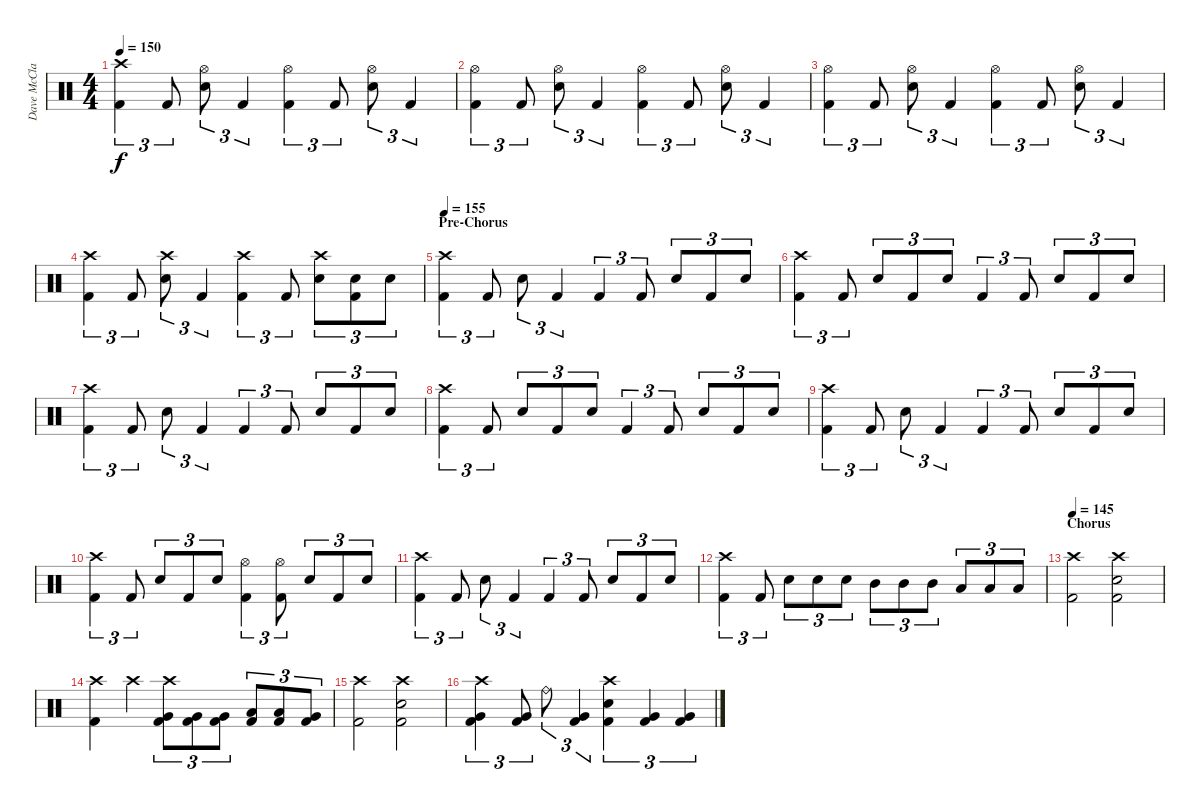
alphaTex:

\track ("Dave McClain" "Dave McCla") {instrument percussion}
\staff {score}
\articulation defaults
\ts (4 4)
\tempo 150
\clef neutral
\ks c
("Crash high (hit)" "Kick (hit) 2").4{tu (3 2) dy f} "Kick (hit) 2".8{tu (3 2)} ("Hi-Hat (open)" "Electric Snare (hit)").8{tu (3 2)} "Kick (hit) 2".4{tu (3 2)} ("Hi-Hat (open)" "Kick (hit) 2").4{tu (3 2)} "Kick (hit) 2".8{tu (3 2)} ("Hi-Hat (open)" "Electric Snare (hit)").8{tu (3 2)} "Kick (hit) 2".4{tu (3 2)} |
("Hi-Hat (open)" "Kick (hit) 2").4{tu (3 2)} "Kick (hit) 2".8{tu (3 2)} ("Hi-Hat (open)" "Electric Snare (hit)").8{tu (3 2)} "Kick (hit) 2".4{tu (3 2)} ("Hi-Hat (open)" "Kick (hit) 2").4{tu (3 2)} "Kick (hit) 2".8{tu (3 2)} ("Hi-Hat (open)" "Electric Snare (hit)").8{tu (3 2)} "Kick (hit) 2".4{tu (3 2)} |
("Hi-Hat (open)" "Kick (hit) 2").4{tu (3 2)} "Kick (hit) 2".8{tu (3 2)} ("Hi-Hat (open)" "Electric Snare (hit)").8{tu (3 2)} "Kick (hit) 2".4{tu (3 2)} ("Hi-Hat (open)" "Kick (hit) 2").4{tu (3 2)} "Kick (hit) 2".8{tu (3 2)} ("Hi-Hat (open)" "Electric Snare (hit)").8{tu (3 2)} "Kick (hit) 2".4{tu (3 2)} |
("Crash high (hit)" "Kick (hit) 2").4{tu (3 2)} "Kick (hit) 2".8{tu (3 2)} ("Crash high (hit)" "Electric Snare (hit)").8{tu (3 2)} "Kick (hit) 2".4{tu (3 2)} ("Crash high (hit)" "Kick (hit) 2").4{tu (3 2)} "Kick (hit) 2".8{tu (3 2)} ("Crash high (hit)" "Electric Snare (hit)").8{tu (3 2)} ("Electric Snare (hit)" "Kick (hit) 2").8{tu (3 2)} "Electric Snare (hit)".8{tu (3 2)} |
\section ("" "Pre-Chorus")
\tempo 155
("Crash high (hit)" "Kick (hit) 2").4{tu (3 2)} "Kick (hit) 2".8{tu (3 2)} "Electric Snare (hit)".8{tu (3 2)} "Kick (hit) 2".4{tu (3 2)} "Kick (hit) 2".4{tu (3 2)} "Kick (hit) 2".8{tu (3 2)} "Electric Snare (hit)".8{tu (3 2)} "Kick (hit) 2".8{tu (3 2)} "Electric Snare (hit)".8{tu (3 2)} |
("Crash high (hit)" "Kick (hit) 2").4{tu (3 2)} "Kick (hit) 2".8{tu (3 2)} "Electric Snare (hit)".8{tu (3 2)} "Kick (hit) 2".8{tu (3 2)} "Electric Snare (hit)".8{tu (3 2)} "Kick (hit) 2".4{tu (3 2)} "Kick (hit) 2".8{tu (3 2)} "Electric Snare (hit)".8{tu (3 2)} "Kick (hit) 2".8{tu (3 2)} "Electric Snare (hit)".8{tu (3 2)} |
("Crash high (hit)" "Kick (hit) 2").4{tu (3 2)} "Kick (hit) 2".8{tu (3 2)} "Electric Snare (hit)".8{tu (3 2)} "Kick (hit) 2".4{tu (3 2)} "Kick (hit) 2".4{tu (3 2)} "Kick (hit) 2".8{tu (3 2)} "Electric Snare (hit)".8{tu (3 2)} "Kick (hit) 2".8{tu (3 2)} "Electric Snare (hit)".8{tu (3 2)} |
("Crash high (hit)" "Kick (hit) 2").4{tu (3 2)} "Kick (hit) 2".8{tu (3 2)} "Electric Snare (hit)".8{tu (3 2)} "Kick (hit) 2".8{tu (3 2)} "Electric Snare (hit)".8{tu (3 2)} "Kick (hit) 2".4{tu (3 2)} "Kick (hit) 2".8{tu (3 2)} "Electric Snare (hit)".8{tu (3 2)} "Kick (hit) 2".8{tu (3 2)} "Electric Snare (hit)".8{tu (3 2)} |
("Crash high (hit)" "Kick (hit) 2").4{tu (3 2)} "Kick (hit) 2".8{tu (3 2)} "Electric Snare (hit)".8{tu (3 2)} "Kick (hit) 2".4{tu (3 2)} "Kick (hit) 2".4{tu (3 2)} "Kick (hit) 2".8{tu (3 2)} "Electric Snare (hit)".8{tu (3 2)} "Kick (hit) 2".8{tu (3 2)} "Electric Snare (hit)".8{tu (3 2)} |
("Crash high (hit)" "Kick (hit) 2").4{tu (3 2)} "Kick (hit) 2".8{tu (3 2)} "Electric Snare (hit)".8{tu (3 2)} "Kick (hit) 2".8{tu (3 2)} "Electric Snare (hit)".8{tu (3 2)} ("Hi-Hat (open)" "Kick (hit) 2").4{tu (3 2)} ("Hi-Hat (open)" "Kick (hit) 2").8{tu (3 2)} "Electric Snare (hit)".8{tu (3 2)} "Kick (hit) 2".8{tu (3 2)} "Electric Snare (hit)".8{tu (3 2)} |
("Crash high (hit)" "Kick (hit) 2").4{tu (3 2)} "Kick (hit) 2".8{tu (3 2)} "Electric Snare (hit)".8{tu (3 2)} "Kick (hit) 2".4{tu (3 2)} "Kick (hit) 2".4{tu (3 2)} "Kick (hit) 2".8{tu (3 2)} "Electric Snare (hit)".8{tu (3 2)} "Kick (hit) 2".8{tu (3 2)} "Electric Snare (hit)".8{tu (3 2)} |
("Crash high (hit)" "Kick (hit) 2").4{tu (3 2)} "Kick (hit) 2".8{tu (3 2)} "Electric Snare (hit)".8{tu (3 2)} "Electric Snare (hit)".8{tu (3 2)} "Electric Snare (hit)".8{tu (3 2)} "Mid Tom (hit)".8{tu (3 2)} "Mid Tom (hit)".8{tu (3 2)} "Mid Tom (hit)".8{tu (3 2)} "Low Tom (hit)".8{tu (3 2)} "Low Tom (hit)".8{tu (3 2)} "Low Tom (hit)".8{tu (3 2)} |
\section ("" "Chorus")
\tempo 145
("Crash high (hit)" "Kick (hit) 2").2 ("Crash high (hit)" "Electric Snare (hit)" "Kick (hit) 2").2 |
("Crash high (hit)" "Kick (hit) 2").4 "Crash high (hit)".4 ("Crash high (hit)" "Very Low Tom (hit)" "Kick (hit) 2").8{tu (3 2)} ("Very Low Tom (hit)" "Kick (hit) 2").8{tu (3 2)} ("Very Low Tom (hit)" "Kick (hit) 2").8{tu (3 2)} ("Low Tom (hit)" "Kick (hit) 2").8{tu (3 2)} ("Low Tom (hit)" "Kick (hit) 2").8{tu (3 2)} ("Very Low Tom (hit)" "Kick (hit) 2").8{tu (3 2)} |
("Crash high (hit)" "Kick (hit) 2").2 ("Crash high (hit)" "Electric Snare (hit)" "Kick (hit) 2").2 |
("Crash high (hit)" "Very Low Tom (hit)" "Kick (hit) 2").4{tu (3 2)} ("Very Low Tom (hit)" "Kick (hit) 2").8{tu (3 2)} "Ride (bell)".8{tu (3 2)} ("Very Low Tom (hit)" "Kick (hit) 2").4{tu (3 2)} ("Crash high (hit)" "Electric Snare (hit)" "Kick (hit) 2").4{tu (3 2)} ("Very Low Tom (hit)" "Kick (hit) 2").4{tu (3 2)} ("Very Low Tom (hit)" "Kick (hit) 2").4{tu (3 2)}
